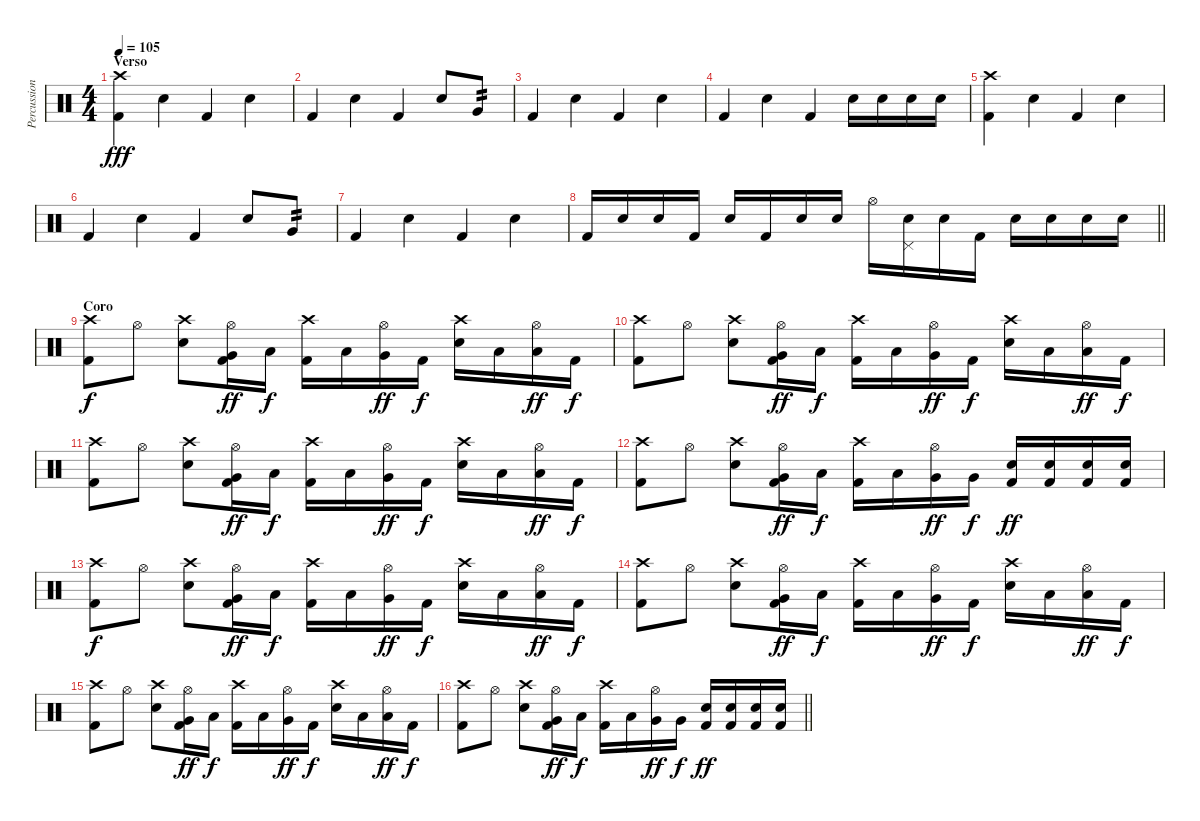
\track ("Percussion" "Percussion") {instrument percussion}
\staff {score}
\articulation defaults
\ts (4 4)
\section ("" "Verso")
\tempo 105
\clef neutral
\ks c
("Crash high (hit)" "Kick (hit) 2").4{dy fff} "Electric Snare (hit)".4 "Kick (hit) 2".4 "Electric Snare (hit)".4 |
"Kick (hit) 2".4 "Electric Snare (hit)".4 "Kick (hit) 2".4 "Electric Snare (hit)".8 "Very Low Tom (hit)".8{tp 2} |
"Kick (hit) 2".4 "Electric Snare (hit)".4 "Kick (hit) 2".4 "Electric Snare (hit)".4 |
"Kick (hit) 2".4 "Electric Snare (hit)".4 "Kick (hit) 2".4 "Electric Snare (hit)".16 "Electric Snare (hit)".16 "Electric Snare (hit)".16 "Electric Snare (hit)".16 |
("Crash high (hit)" "Kick (hit) 2").4 "Electric Snare (hit)".4 "Kick (hit) 2".4 "Electric Snare (hit)".4 |
"Kick (hit) 2".4 "Electric Snare (hit)".4 "Kick (hit) 2".4 "Electric Snare (hit)".8 "Very Low Tom (hit)".8{tp 2} |
"Kick (hit) 2".4 "Electric Snare (hit)".4 "Kick (hit) 2".4 "Electric Snare (hit)".4 |
\barLineRight lightlight "Kick (hit) 2".16 "Electric Snare (hit)".16 "Electric Snare (hit)".16 "Kick (hit) 2".16 "Electric Snare (hit)".16 "Kick (hit) 2".16 "Electric Snare (hit)".16 "Electric Snare (hit)".16 "Hi-Hat (open)".16
("Pedal Hi-Hat (hit)" "Electric Snare (hit)").16 "Electric Snare (hit)".16 "Kick (hit) 2".16 "Electric Snare (hit)".16 "Electric Snare (hit)".16 "Electric Snare (hit)".16 "Electric Snare (hit)".16 |
\section ("" "Coro")
("Crash high (hit)" "Kick (hit) 2").8{dy f} "Hi-Hat (open)".8 ("Crash high (hit)" "Electric Snare (hit)").8 ("Very Low Tom (hit)" "Hi-Hat (open)" "Kick (hit) 2").16{dy ff} "Low Tom (hit)".16{dy f} ("Crash high (hit)" "Kick (hit) 2").16 "Low Tom (hit)".16 ("Very Low Tom (hit)" "Hi-Hat (open)").16{dy ff} "Kick (hit) 2".16{dy f} ("Crash high (hit)" "Electric Snare (hit)").16 "Low Tom (hit)".16 ("Low Tom (hit)" "Hi-Hat (open)").16{dy ff} "Kick (hit) 2".16{dy f} |
("Crash high (hit)" "Kick (hit) 2").8 "Hi-Hat (open)".8 ("Crash high (hit)" "Electric Snare (hit)").8 ("Very Low Tom (hit)" "Hi-Hat (open)" "Kick (hit) 2").16{dy ff} "Low Tom (hit)".16{dy f} ("Crash high (hit)" "Kick (hit) 2").16 "Low Tom (hit)".16 ("Very Low Tom (hit)" "Hi-Hat (open)").16{dy ff} "Kick (hit) 2".16{dy f} ("Crash high (hit)" "Electric Snare (hit)").16 "Low Tom (hit)".16 ("Low Tom (hit)" "Hi-Hat (open)").16{dy ff} "Kick (hit) 2".16{dy f} |
("Crash high (hit)" "Kick (hit) 2").8 "Hi-Hat (open)".8 ("Crash high (hit)" "Electric Snare (hit)").8 ("Very Low Tom (hit)" "Hi-Hat (open)" "Kick (hit) 2").16{dy ff} "Low Tom (hit)".16{dy f} ("Crash high (hit)" "Kick (hit) 2").16 "Low Tom (hit)".16 ("Very Low Tom (hit)" "Hi-Hat (open)").16{dy ff} "Kick (hit) 2".16{dy f} ("Crash high (hit)" "Electric Snare (hit)").16 "Low Tom (hit)".16 ("Low Tom (hit)" "Hi-Hat (open)").16{dy ff} "Kick (hit) 2".16{dy f} |
("Crash high (hit)" "Kick (hit) 2").8 "Hi-Hat (open)".8 ("Crash high (hit)" "Electric Snare (hit)").8 ("Very Low Tom (hit)" "Hi-Hat (open)" "Kick (hit) 2").16{dy ff} "Low Tom (hit)".16{dy f} ("Crash high (hit)" "Kick (hit) 2").16 "Low Tom (hit)".16 ("Very Low Tom (hit)" "Hi-Hat (open)").16{dy ff} "Very Low Tom (hit)".16{dy f} ("Electric Snare (hit)" "Kick (hit) 2").16{dy ff} ("Electric Snare (hit)" "Kick (hit) 2").16 ("Electric Snare (hit)" "Kick (hit) 2").16 ("Electric Snare (hit)" "Kick (hit) 2").16 |
("Crash high (hit)" "Kick (hit) 2").8{dy f} "Hi-Hat (open)".8 ("Crash high (hit)" "Electric Snare (hit)").8 ("Very Low Tom (hit)" "Hi-Hat (open)" "Kick (hit) 2").16{dy ff} "Low Tom (hit)".16{dy f} ("Crash high (hit)" "Kick (hit) 2").16 "Low Tom (hit)".16 ("Very Low Tom (hit)" "Hi-Hat (open)").16{dy ff} "Kick (hit) 2".16{dy f} ("Crash high (hit)" "Electric Snare (hit)").16 "Low Tom (hit)".16 ("Low Tom (hit)" "Hi-Hat (open)").16{dy ff} "Kick (hit) 2".16{dy f} |
("Crash high (hit)" "Kick (hit) 2").8 "Hi-Hat (open)".8 ("Crash high (hit)" "Electric Snare (hit)").8 ("Very Low Tom (hit)" "Hi-Hat (open)" "Kick (hit) 2").16{dy ff} "Low Tom (hit)".16{dy f} ("Crash high (hit)" "Kick (hit) 2").16 "Low Tom (hit)".16 ("Very Low Tom (hit)" "Hi-Hat (open)").16{dy ff} "Kick (hit) 2".16{dy f} ("Crash high (hit)" "Electric Snare (hit)").16 "Low Tom (hit)".16 ("Low Tom (hit)" "Hi-Hat (open)").16{dy ff} "Kick (hit) 2".16{dy f} |
("Crash high (hit)" "Kick (hit) 2").8 "Hi-Hat (open)".8 ("Crash high (hit)" "Electric Snare (hit)").8 ("Very Low Tom (hit)" "Hi-Hat (open)" "Kick (hit) 2").16{dy ff} "Low Tom (hit)".16{dy f} ("Crash high (hit)" "Kick (hit) 2").16 "Low Tom (hit)".16 ("Very Low Tom (hit)" "Hi-Hat (open)").16{dy ff} "Kick (hit) 2".16{dy f} ("Crash high (hit)" "Electric Snare (hit)").16 "Low Tom (hit)".16 ("Low Tom (hit)" "Hi-Hat (open)").16{dy ff} "Kick (hit) 2".16{dy f} |
\barLineRight lightlight
("Crash high (hit)" "Kick (hit) 2").8 "Hi-Hat (open)".8 ("Crash high (hit)" "Electric Snare (hit)").8 ("Very Low Tom (hit)" "Hi-Hat (open)" "Kick (hit) 2").16{dy ff} "Low Tom (hit)".16{dy f} ("Crash high (hit)" "Kick (hit) 2").16 "Low Tom (hit)".16 ("Very Low Tom (hit)" "Hi-Hat (open)").16{dy ff} "Very Low Tom (hit)".16{dy f} ("Electric Snare (hit)" "Kick (hit) 2").16{dy ff} ("Electric Snare (hit)" "Kick (hit) 2").16 ("Electric Snare (hit)" "Kick (hit) 2").16 ("Electric Snare (hit)" "Kick (hit) 2").16
